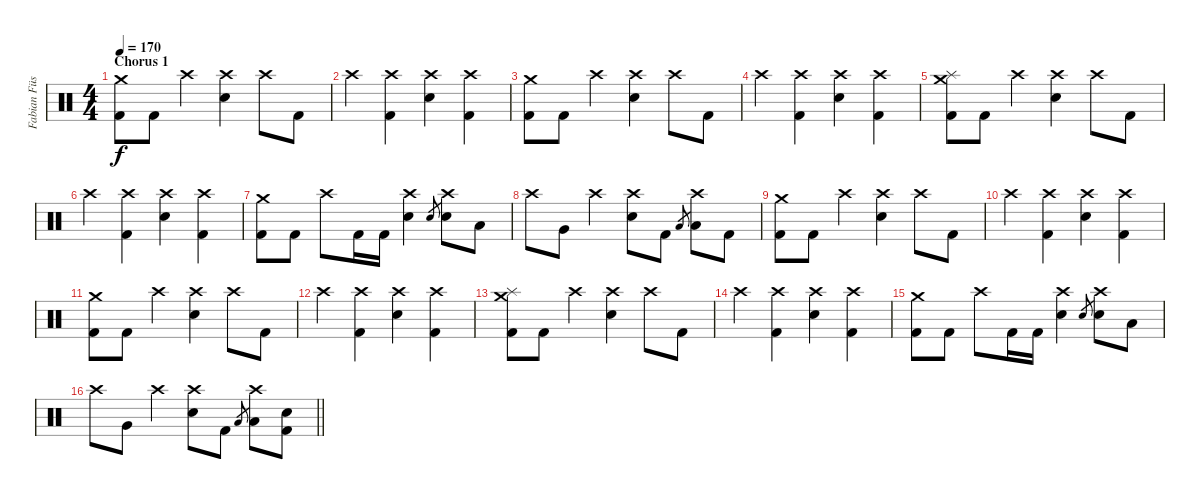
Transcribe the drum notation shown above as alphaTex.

\track ("Fabian Füss" "Fabian Füs") {instrument percussion}
\staff {score}
\articulation defaults
\ts (4 4)
\section ("" "Chorus 1")
\tempo 170
\clef neutral
\ks c
("Crash medium (hit)" "Kick (hit) 2").8{dy f} "Kick (hit) 2".8 "Crash high (hit)".4 ("Crash high (hit)" "Snare (hit) 2").4 "Crash high (hit)".8 "Kick (hit) 2".8 |
"Crash high (hit)".4 ("Crash high (hit)" "Kick (hit) 2").4 ("Crash high (hit)" "Snare (hit) 2").4 ("Crash high (hit)" "Kick (hit) 2").4 |
("Crash medium (hit)" "Kick (hit) 2").8 "Kick (hit) 2".8 "Crash high (hit)".4 ("Crash high (hit)" "Snare (hit) 2").4 "Crash high (hit)".8 "Kick (hit) 2".8 |
"Crash high (hit)".4 ("Crash high (hit)" "Kick (hit) 2").4 ("Crash high (hit)" "Snare (hit) 2").4 ("Crash high (hit)" "Kick (hit) 2").4 |
("Crash medium (hit)" "Splash (hit)" "Kick (hit) 2").8 "Kick (hit) 2".8 "Crash high (hit)".4 ("Crash high (hit)" "Snare (hit) 2").4 "Crash high (hit)".8 "Kick (hit) 2".8 |
"Crash high (hit)".4 ("Crash high (hit)" "Kick (hit) 2").4 ("Crash high (hit)" "Snare (hit) 2").4 ("Crash high (hit)" "Kick (hit) 2").4 |
("Crash medium (hit)" "Kick (hit) 2").8 "Kick (hit) 2".8 "Crash high (hit)".8 "Kick (hit) 2".16 "Kick (hit) 2".16 ("Crash high (hit)" "Snare (hit) 2").4 "Snare (hit) 2".8{gr} ("Crash high (hit)" "Snare (hit) 2").8 "Low Tom (hit)".8 |
"Crash high (hit)".8 "Very Low Tom (hit)".8 "Crash high (hit)".4 ("Crash high (hit)" "Snare (hit) 2").8 "Kick (hit) 2".8 "Low Tom (hit)".8{gr} ("Crash high (hit)" "Low Tom (hit)").8 "Kick (hit) 2".8 |
("Crash medium (hit)" "Kick (hit) 2").8 "Kick (hit) 2".8 "Crash high (hit)".4 ("Crash high (hit)" "Snare (hit) 2").4 "Crash high (hit)".8 "Kick (hit) 2".8 |
"Crash high (hit)".4 ("Crash high (hit)" "Kick (hit) 2").4 ("Crash high (hit)" "Snare (hit) 2").4 ("Crash high (hit)" "Kick (hit) 2").4 |
("Crash medium (hit)" "Kick (hit) 2").8 "Kick (hit) 2".8 "Crash high (hit)".4 ("Crash high (hit)" "Snare (hit) 2").4 "Crash high (hit)".8 "Kick (hit) 2".8 |
"Crash high (hit)".4 ("Crash high (hit)" "Kick (hit) 2").4 ("Crash high (hit)" "Snare (hit) 2").4 ("Crash high (hit)" "Kick (hit) 2").4 |
("Crash medium (hit)" "Splash (hit)" "Kick (hit) 2").8 "Kick (hit) 2".8 "Crash high (hit)".4 ("Crash high (hit)" "Snare (hit) 2").4 "Crash high (hit)".8 "Kick (hit) 2".8 |
"Crash high (hit)".4 ("Crash high (hit)" "Kick (hit) 2").4 ("Crash high (hit)" "Snare (hit) 2").4 ("Crash high (hit)" "Kick (hit) 2").4 |
("Crash medium (hit)" "Kick (hit) 2").8 "Kick (hit) 2".8 "Crash high (hit)".8 "Kick (hit) 2".16 "Kick (hit) 2".16 ("Crash high (hit)" "Snare (hit) 2").4 "Snare (hit) 2".8{gr} ("Crash high (hit)" "Snare (hit) 2").8 "Low Tom (hit)".8 |
\barLineRight lightlight "Crash high (hit)".8 "Very Low Tom (hit)".8 "Crash high (hit)".4
("Crash high (hit)" "Snare (hit) 2").8 "Kick (hit) 2".8 "Low Tom (hit)".8{gr} ("Crash high (hit)" "Low Tom (hit)").8 ("Snare (hit) 2" "Kick (hit) 2").8
